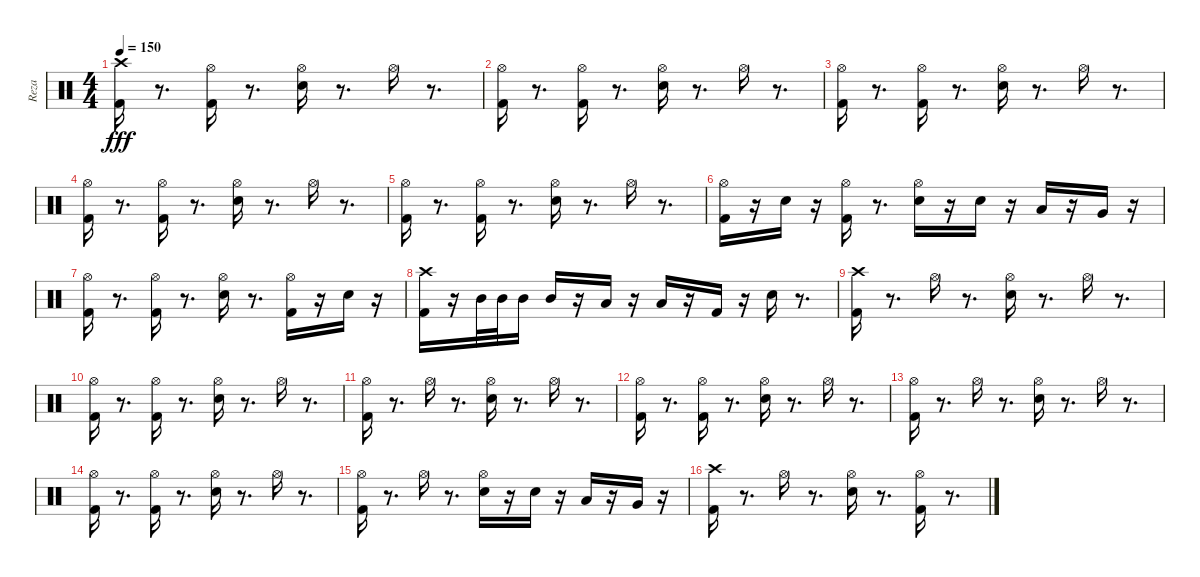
\track ("Reza" "Reza") {instrument percussion}
\staff {score}
\articulation defaults
\ts (4 4)
\tempo 150
\clef neutral
\ks c
("Crash high (hit)" "Kick (hit) 2").16{dy fff} r.8{d} ("Hi-Hat (open)" "Kick (hit) 2").16 r.8{d} ("Snare (hit) 2" "Hi-Hat (open)").16 r.8{d} "Hi-Hat (open)".16 r.8{d} |
("Kick (hit) 2" "Hi-Hat (open)").16 r.8{d} ("Kick (hit) 2" "Hi-Hat (open)").16 r.8{d} ("Snare (hit) 2" "Hi-Hat (open)").16 r.8{d} "Hi-Hat (open)".16 r.8{d} |
("Hi-Hat (open)" "Kick (hit) 2").16 r.8{d} ("Hi-Hat (open)" "Kick (hit) 2").16 r.8{d} ("Hi-Hat (open)" "Snare (hit) 2").16 r.8{d} "Hi-Hat (open)".16 r.8{d} |
("Hi-Hat (open)" "Kick (hit) 2").16 r.8{d} ("Kick (hit) 2" "Hi-Hat (open)").16 r.8{d} ("Snare (hit) 2" "Hi-Hat (open)").16 r.8{d} "Hi-Hat (open)".16 r.8{d} |
("Hi-Hat (open)" "Kick (hit) 2").16 r.8{d} ("Hi-Hat (open)" "Kick (hit) 2").16 r.8{d} ("Snare (hit) 2" "Hi-Hat (open)").16 r.8{d} "Hi-Hat (open)".16 r.8{d} |
("Kick (hit) 2" "Hi-Hat (open)").16 r.16 "Snare (hit) 2".16 r.16 ("Kick (hit) 2" "Hi-Hat (open)").16 r.8{d} ("Snare (hit) 2" "Hi-Hat (open)").16 r.16 "Snare (hit) 2".16 r.16 "Low Tom (hit)".16 r.16 "Very Low Tom (hit)".16 r.16 |
("Hi-Hat (open)" "Kick (hit) 2").16 r.8{d} ("Kick (hit) 2" "Hi-Hat (open)").16 r.8{d} ("Hi-Hat (open)" "Snare (hit) 2").16 r.8{d} ("Kick (hit) 2" "Hi-Hat (open)").16 r.16 "Snare (hit) 2".16 r.16 |
("Kick (hit) 2" "Crash high (hit)").16 r.16 "Mid Tom (hit)".32 "Mid Tom (hit)".32 "Mid Tom (hit)".16 "Mid Tom (hit)".16 r.16 "Low Tom (hit)".16 r.16 "Low Tom (hit)".16 r.16 "Kick (hit) 2".16 r.16 "Snare (hit) 2".16 r.8{d} |
("Kick (hit) 2" "Crash high (hit)").16 r.8{d} "Hi-Hat (open)".16 r.8{d} ("Hi-Hat (open)" "Snare (hit) 2").16 r.8{d} "Hi-Hat (open)".16 r.8{d} |
("Kick (hit) 2" "Hi-Hat (open)").16 r.8{d} ("Hi-Hat (open)" "Kick (hit) 2").16 r.8{d} ("Snare (hit) 2" "Hi-Hat (open)").16 r.8{d} "Hi-Hat (open)".16 r.8{d} |
("Kick (hit) 2" "Hi-Hat (open)").16 r.8{d} "Hi-Hat (open)".16 r.8{d} ("Hi-Hat (open)" "Snare (hit) 2").16 r.8{d} "Hi-Hat (open)".16 r.8{d} |
("Hi-Hat (open)" "Kick (hit) 2").16 r.8{d} ("Hi-Hat (open)" "Kick (hit) 2").16 r.8{d} ("Snare (hit) 2" "Hi-Hat (open)").16 r.8{d} "Hi-Hat (open)".16 r.8{d} |
("Kick (hit) 2" "Hi-Hat (open)").16 r.8{d} "Hi-Hat (open)".16 r.8{d} ("Snare (hit) 2" "Hi-Hat (open)").16 r.8{d} "Hi-Hat (open)".16 r.8{d} |
("Hi-Hat (open)" "Kick (hit) 2").16 r.8{d} ("Hi-Hat (open)" "Kick (hit) 2").16 r.8{d} ("Snare (hit) 2" "Hi-Hat (open)").16 r.8{d} "Hi-Hat (open)".16 r.8{d} |
("Hi-Hat (open)" "Kick (hit) 2").16 r.8{d} "Hi-Hat (open)".16 r.8{d} ("Snare (hit) 2" "Hi-Hat (open)").16 r.16 "Snare (hit) 2".16 r.16 "Low Tom (hit)".16 r.16 "Very Low Tom (hit)".16 r.16 |
("Kick (hit) 2" "Crash high (hit)").16 r.8{d} "Hi-Hat (open)".16 r.8{d} ("Snare (hit) 2" "Hi-Hat (open)").16 r.8{d} ("Kick (hit) 2" "Hi-Hat (open)").16 r.8{d}
